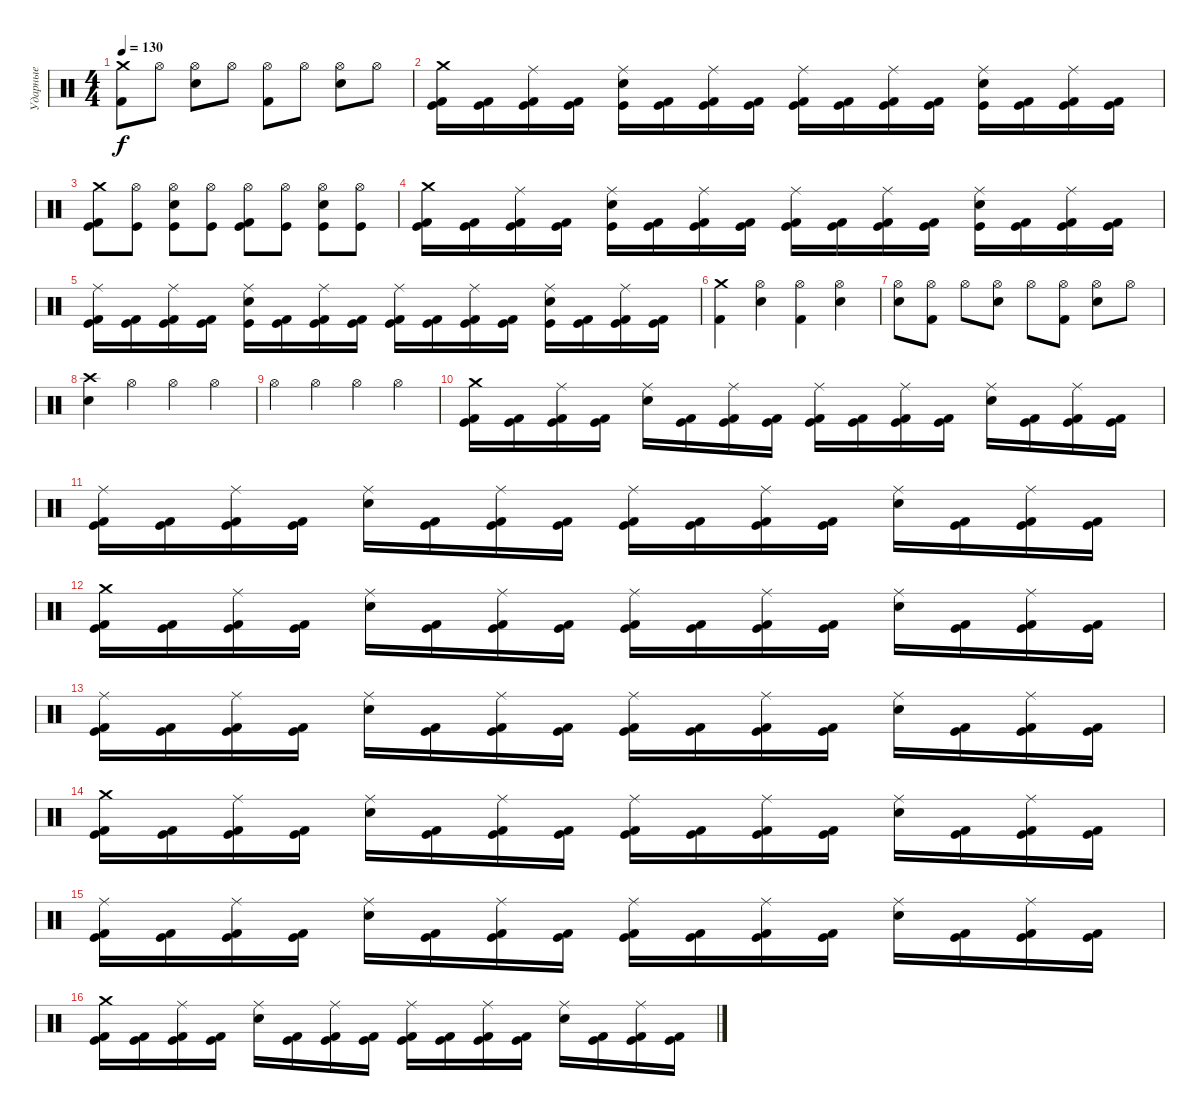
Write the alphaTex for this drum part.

\track ("Ударные" "Ударные") {instrument percussion}
\staff {score}
\articulation defaults
\ts (4 4)
\tempo 130
\clef neutral
\ks c
("Crash medium (hit)" "Kick (hit) 2").8{dy f} "Hi-Hat (open)".8 ("Hi-Hat (open)" "Electric Snare (hit)").8 "Hi-Hat (open)".8 ("Hi-Hat (open)" "Kick (hit) 2").8 "Hi-Hat (open)".8 ("Hi-Hat (open)" "Electric Snare (hit)").8 "Hi-Hat (open)".8 |
("Crash medium (hit)" "Kick (hit) 2" "Kick (hit)").16 ("Kick (hit) 2" "Kick (hit)").16 ("Ride (middle)" "Kick (hit) 2" "Kick (hit)").16 ("Kick (hit) 2" "Kick (hit)").16 ("Ride (middle)" "Electric Snare (hit)" "Kick (hit)").16 ("Kick (hit) 2" "Kick (hit)").16 ("Ride (middle)" "Kick (hit) 2" "Kick (hit)").16 ("Kick (hit) 2" "Kick (hit)").16 ("Ride (middle)" "Kick (hit) 2" "Kick (hit)").16 ("Kick (hit) 2" "Kick (hit)").16 ("Ride (middle)" "Kick (hit) 2" "Kick (hit)").16 ("Kick (hit) 2" "Kick (hit)").16 ("Ride (middle)" "Electric Snare (hit)" "Kick (hit)").16 ("Kick (hit) 2" "Kick (hit)").16 ("Ride (middle)" "Kick (hit) 2" "Kick (hit)").16 ("Kick (hit) 2" "Kick (hit)").16 |
("Crash medium (hit)" "Kick (hit) 2" "Kick (hit)").8 ("Hi-Hat (open)" "Kick (hit)").8 ("Hi-Hat (open)" "Electric Snare (hit)" "Kick (hit)").8 ("Hi-Hat (open)" "Kick (hit)").8 ("Hi-Hat (open)" "Kick (hit) 2" "Kick (hit)").8 ("Hi-Hat (open)" "Kick (hit)").8 ("Hi-Hat (open)" "Electric Snare (hit)" "Kick (hit)").8 ("Hi-Hat (open)" "Kick (hit)").8 |
("Crash medium (hit)" "Kick (hit) 2" "Kick (hit)").16 ("Kick (hit) 2" "Kick (hit)").16 ("Ride (middle)" "Kick (hit) 2" "Kick (hit)").16 ("Kick (hit) 2" "Kick (hit)").16 ("Ride (middle)" "Electric Snare (hit)" "Kick (hit)").16 ("Kick (hit) 2" "Kick (hit)").16 ("Ride (middle)" "Kick (hit) 2" "Kick (hit)").16 ("Kick (hit) 2" "Kick (hit)").16 ("Ride (middle)" "Kick (hit) 2" "Kick (hit)").16 ("Kick (hit) 2" "Kick (hit)").16 ("Ride (middle)" "Kick (hit) 2" "Kick (hit)").16 ("Kick (hit) 2" "Kick (hit)").16 ("Ride (middle)" "Electric Snare (hit)" "Kick (hit)").16 ("Kick (hit) 2" "Kick (hit)").16 ("Ride (middle)" "Kick (hit) 2" "Kick (hit)").16 ("Kick (hit) 2" "Kick (hit)").16 |
("Ride (middle)" "Kick (hit) 2" "Kick (hit)").16 ("Kick (hit) 2" "Kick (hit)").16 ("Ride (middle)" "Kick (hit) 2" "Kick (hit)").16 ("Kick (hit) 2" "Kick (hit)").16 ("Ride (middle)" "Electric Snare (hit)" "Kick (hit)").16 ("Kick (hit) 2" "Kick (hit)").16 ("Ride (middle)" "Kick (hit) 2" "Kick (hit)").16 ("Kick (hit) 2" "Kick (hit)").16 ("Ride (middle)" "Kick (hit) 2" "Kick (hit)").16 ("Kick (hit) 2" "Kick (hit)").16 ("Ride (middle)" "Kick (hit) 2" "Kick (hit)").16 ("Kick (hit) 2" "Kick (hit)").16 ("Ride (middle)" "Electric Snare (hit)" "Kick (hit)").16 ("Kick (hit) 2" "Kick (hit)").16 ("Ride (middle)" "Kick (hit) 2" "Kick (hit)").16 ("Kick (hit) 2" "Kick (hit)").16 |
("Crash medium (hit)" "Kick (hit) 2").4 ("Hi-Hat (open)" "Electric Snare (hit)").4 ("Hi-Hat (open)" "Kick (hit) 2").4 ("Hi-Hat (open)" "Electric Snare (hit)").4 |
("Hi-Hat (open)" "Electric Snare (hit)").8 ("Hi-Hat (open)" "Kick (hit) 2").8 "Hi-Hat (open)".8 ("Hi-Hat (open)" "Electric Snare (hit)").8 "Hi-Hat (open)".8 ("Hi-Hat (open)" "Kick (hit) 2").8 ("Hi-Hat (open)" "Electric Snare (hit)").8 "Hi-Hat (open)".8 |
("Crash high (hit)" "Electric Snare (hit)").4 "Hi-Hat (open)".4 "Hi-Hat (open)".4 "Hi-Hat (open)".4 |
"Hi-Hat (open)".4 "Hi-Hat (open)".4 "Hi-Hat (open)".4 "Hi-Hat (open)".4 |
("Crash medium (hit)" "Kick (hit) 2" "Kick (hit)").16 ("Kick (hit) 2" "Kick (hit)").16 ("Ride (middle)" "Kick (hit) 2" "Kick (hit)").16 ("Kick (hit) 2" "Kick (hit)").16 ("Ride (middle)" "Electric Snare (hit)").16 ("Kick (hit) 2" "Kick (hit)").16 ("Ride (middle)" "Kick (hit) 2" "Kick (hit)").16 ("Kick (hit) 2" "Kick (hit)").16 ("Ride (middle)" "Kick (hit) 2" "Kick (hit)").16 ("Kick (hit) 2" "Kick (hit)").16 ("Ride (middle)" "Kick (hit) 2" "Kick (hit)").16 ("Kick (hit) 2" "Kick (hit)").16 ("Ride (middle)" "Electric Snare (hit)").16 ("Kick (hit) 2" "Kick (hit)").16 ("Ride (middle)" "Kick (hit) 2" "Kick (hit)").16 ("Kick (hit) 2" "Kick (hit)").16 |
("Ride (middle)" "Kick (hit) 2" "Kick (hit)").16 ("Kick (hit) 2" "Kick (hit)").16 ("Ride (middle)" "Kick (hit) 2" "Kick (hit)").16 ("Kick (hit) 2" "Kick (hit)").16 ("Ride (middle)" "Electric Snare (hit)").16 ("Kick (hit) 2" "Kick (hit)").16 ("Ride (middle)" "Kick (hit) 2" "Kick (hit)").16 ("Kick (hit) 2" "Kick (hit)").16 ("Ride (middle)" "Kick (hit) 2" "Kick (hit)").16 ("Kick (hit) 2" "Kick (hit)").16 ("Ride (middle)" "Kick (hit) 2" "Kick (hit)").16 ("Kick (hit) 2" "Kick (hit)").16 ("Ride (middle)" "Electric Snare (hit)").16 ("Kick (hit) 2" "Kick (hit)").16 ("Ride (middle)" "Kick (hit) 2" "Kick (hit)").16 ("Kick (hit) 2" "Kick (hit)").16 |
("Crash medium (hit)" "Kick (hit) 2" "Kick (hit)").16 ("Kick (hit) 2" "Kick (hit)").16 ("Ride (middle)" "Kick (hit) 2" "Kick (hit)").16 ("Kick (hit) 2" "Kick (hit)").16 ("Ride (middle)" "Electric Snare (hit)").16 ("Kick (hit) 2" "Kick (hit)").16 ("Ride (middle)" "Kick (hit) 2" "Kick (hit)").16 ("Kick (hit) 2" "Kick (hit)").16 ("Ride (middle)" "Kick (hit) 2" "Kick (hit)").16 ("Kick (hit) 2" "Kick (hit)").16 ("Ride (middle)" "Kick (hit) 2" "Kick (hit)").16 ("Kick (hit) 2" "Kick (hit)").16 ("Ride (middle)" "Electric Snare (hit)").16 ("Kick (hit) 2" "Kick (hit)").16 ("Ride (middle)" "Kick (hit) 2" "Kick (hit)").16 ("Kick (hit) 2" "Kick (hit)").16 |
("Ride (middle)" "Kick (hit) 2" "Kick (hit)").16 ("Kick (hit) 2" "Kick (hit)").16 ("Ride (middle)" "Kick (hit) 2" "Kick (hit)").16 ("Kick (hit) 2" "Kick (hit)").16 ("Ride (middle)" "Electric Snare (hit)").16 ("Kick (hit) 2" "Kick (hit)").16 ("Ride (middle)" "Kick (hit) 2" "Kick (hit)").16 ("Kick (hit) 2" "Kick (hit)").16 ("Ride (middle)" "Kick (hit) 2" "Kick (hit)").16 ("Kick (hit) 2" "Kick (hit)").16 ("Ride (middle)" "Kick (hit) 2" "Kick (hit)").16 ("Kick (hit) 2" "Kick (hit)").16 ("Ride (middle)" "Electric Snare (hit)").16 ("Kick (hit) 2" "Kick (hit)").16 ("Ride (middle)" "Kick (hit) 2" "Kick (hit)").16 ("Kick (hit) 2" "Kick (hit)").16 |
("Crash medium (hit)" "Kick (hit) 2" "Kick (hit)").16 ("Kick (hit) 2" "Kick (hit)").16 ("Ride (middle)" "Kick (hit) 2" "Kick (hit)").16 ("Kick (hit) 2" "Kick (hit)").16 ("Ride (middle)" "Electric Snare (hit)").16 ("Kick (hit) 2" "Kick (hit)").16 ("Ride (middle)" "Kick (hit) 2" "Kick (hit)").16 ("Kick (hit) 2" "Kick (hit)").16 ("Ride (middle)" "Kick (hit) 2" "Kick (hit)").16 ("Kick (hit) 2" "Kick (hit)").16 ("Ride (middle)" "Kick (hit) 2" "Kick (hit)").16 ("Kick (hit) 2" "Kick (hit)").16 ("Ride (middle)" "Electric Snare (hit)").16 ("Kick (hit) 2" "Kick (hit)").16 ("Ride (middle)" "Kick (hit) 2" "Kick (hit)").16 ("Kick (hit) 2" "Kick (hit)").16 |
("Ride (middle)" "Kick (hit) 2" "Kick (hit)").16 ("Kick (hit) 2" "Kick (hit)").16 ("Ride (middle)" "Kick (hit) 2" "Kick (hit)").16 ("Kick (hit) 2" "Kick (hit)").16 ("Ride (middle)" "Electric Snare (hit)").16 ("Kick (hit) 2" "Kick (hit)").16 ("Ride (middle)" "Kick (hit) 2" "Kick (hit)").16 ("Kick (hit) 2" "Kick (hit)").16 ("Ride (middle)" "Kick (hit) 2" "Kick (hit)").16 ("Kick (hit) 2" "Kick (hit)").16 ("Ride (middle)" "Kick (hit) 2" "Kick (hit)").16 ("Kick (hit) 2" "Kick (hit)").16 ("Ride (middle)" "Electric Snare (hit)").16 ("Kick (hit) 2" "Kick (hit)").16 ("Ride (middle)" "Kick (hit) 2" "Kick (hit)").16 ("Kick (hit) 2" "Kick (hit)").16 |
("Crash medium (hit)" "Kick (hit) 2" "Kick (hit)").16 ("Kick (hit) 2" "Kick (hit)").16 ("Ride (middle)" "Kick (hit) 2" "Kick (hit)").16 ("Kick (hit) 2" "Kick (hit)").16 ("Ride (middle)" "Electric Snare (hit)").16 ("Kick (hit) 2" "Kick (hit)").16 ("Ride (middle)" "Kick (hit) 2" "Kick (hit)").16 ("Kick (hit) 2" "Kick (hit)").16 ("Ride (middle)" "Kick (hit) 2" "Kick (hit)").16 ("Kick (hit) 2" "Kick (hit)").16 ("Ride (middle)" "Kick (hit) 2" "Kick (hit)").16 ("Kick (hit) 2" "Kick (hit)").16 ("Ride (middle)" "Electric Snare (hit)").16 ("Kick (hit) 2" "Kick (hit)").16 ("Ride (middle)" "Kick (hit) 2" "Kick (hit)").16 ("Kick (hit) 2" "Kick (hit)").16
